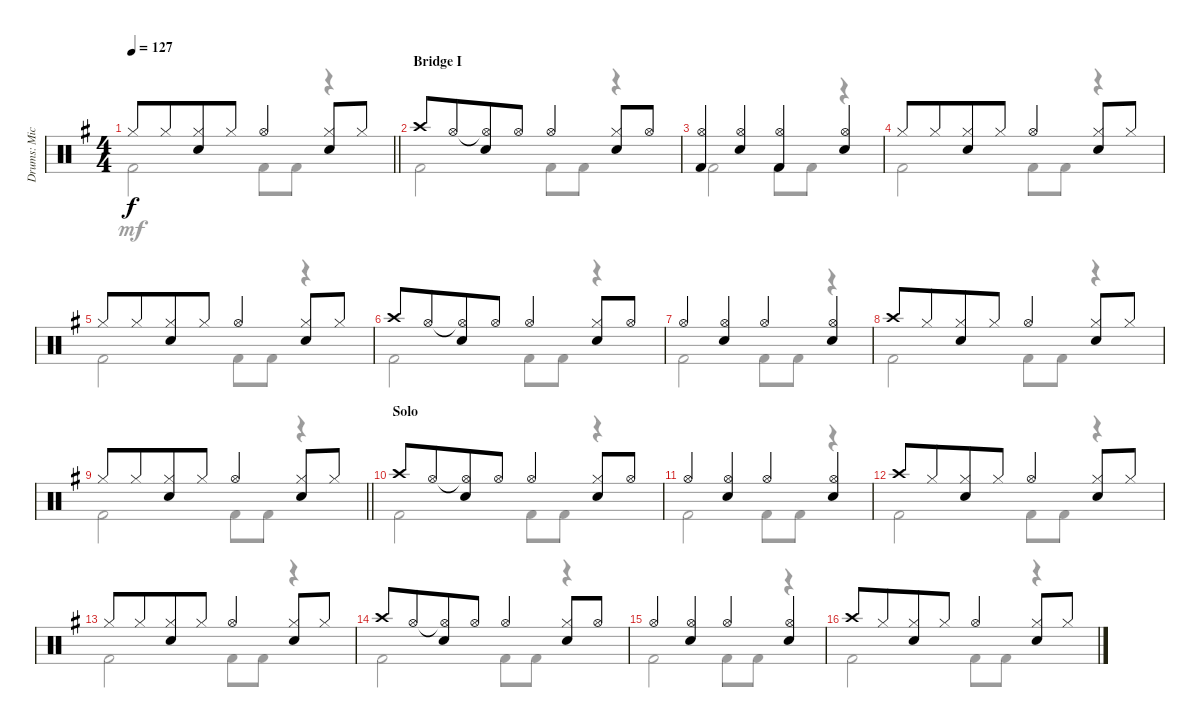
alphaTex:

\track ("Drums: Mick" "Drums: Mic") {instrument percussion}
\staff {score}
\articulation defaults
\voice
\ts (4 4)
\tempo 127
\clef neutral
\barLineRight lightlight
\ks g "Hi-Hat (closed)".8{dy f} "Hi-Hat (closed)".8{beam merge}
("Hi-Hat (closed)" "Snare (hit) 2").8 "Hi-Hat (closed)".8 "Hi-Hat (open)".4{beam merge} ("Hi-Hat (closed)" "Snare (hit) 2").8 "Hi-Hat (closed)".8 |
\section ("" "Bridge I")
"Crash high (hit)".8 "Hi-Hat (open)".8{beam merge} ("Hi-Hat (open)"{t} "Snare (hit) 2").8 "Hi-Hat (open)".8 "Hi-Hat (open)".4{beam merge} ("Hi-Hat (closed)" "Snare (hit) 2").8 "Hi-Hat (open)".8 |
("Hi-Hat (open)" "Kick (hit) 2").4{beam merge} ("Hi-Hat (open)" "Snare (hit) 2").4 ("Hi-Hat (open)" "Kick (hit) 2").4{beam merge} ("Hi-Hat (open)" "Snare (hit) 2").4 |
"Hi-Hat (closed)".8 "Hi-Hat (closed)".8{beam merge} ("Hi-Hat (closed)" "Snare (hit) 2").8 "Hi-Hat (closed)".8 "Hi-Hat (open)".4{beam merge} ("Hi-Hat (closed)" "Snare (hit) 2").8 "Hi-Hat (closed)".8 |
"Hi-Hat (closed)".8 "Hi-Hat (closed)".8{beam merge} ("Hi-Hat (closed)" "Snare (hit) 2").8 "Hi-Hat (closed)".8 "Hi-Hat (open)".4{beam merge} ("Hi-Hat (closed)" "Snare (hit) 2").8 "Hi-Hat (closed)".8 |
"Crash high (hit)".8 "Hi-Hat (open)".8{beam merge} ("Hi-Hat (open)"{t} "Snare (hit) 2").8 "Hi-Hat (open)".8 "Hi-Hat (open)".4{beam merge} ("Hi-Hat (closed)" "Snare (hit) 2").8 "Hi-Hat (open)".8 |
"Hi-Hat (open)".4{beam merge} ("Hi-Hat (open)" "Snare (hit) 2").4 "Hi-Hat (open)".4{beam merge} ("Hi-Hat (open)" "Snare (hit) 2").4 |
"Crash high (hit)".8 "Hi-Hat (closed)".8{beam merge} ("Hi-Hat (closed)" "Snare (hit) 2").8 "Hi-Hat (closed)".8 "Hi-Hat (open)".4{beam merge} ("Hi-Hat (closed)" "Snare (hit) 2").8 "Hi-Hat (closed)".8 |
\barLineRight lightlight "Hi-Hat (closed)".8 "Hi-Hat (closed)".8{beam merge}
("Hi-Hat (closed)" "Snare (hit) 2").8 "Hi-Hat (closed)".8 "Hi-Hat (open)".4{beam merge} ("Hi-Hat (closed)" "Snare (hit) 2").8 "Hi-Hat (closed)".8 |
\section ("" "Solo")
"Crash high (hit)".8 "Hi-Hat (open)".8{beam merge} ("Hi-Hat (open)"{t} "Snare (hit) 2").8 "Hi-Hat (open)".8 "Hi-Hat (open)".4{beam merge} ("Hi-Hat (closed)" "Snare (hit) 2").8 "Hi-Hat (open)".8 |
"Hi-Hat (open)".4{beam merge} ("Hi-Hat (open)" "Snare (hit) 2").4 "Hi-Hat (open)".4{beam merge} ("Hi-Hat (open)" "Snare (hit) 2").4 |
"Crash high (hit)".8 "Hi-Hat (closed)".8{beam merge} ("Hi-Hat (closed)" "Snare (hit) 2").8 "Hi-Hat (closed)".8 "Hi-Hat (open)".4{beam merge} ("Hi-Hat (closed)" "Snare (hit) 2").8 "Hi-Hat (closed)".8 |
"Hi-Hat (closed)".8 "Hi-Hat (closed)".8{beam merge} ("Hi-Hat (closed)" "Snare (hit) 2").8 "Hi-Hat (closed)".8 "Hi-Hat (open)".4{beam merge} ("Hi-Hat (closed)" "Snare (hit) 2").8 "Hi-Hat (closed)".8 |
"Crash high (hit)".8 "Hi-Hat (open)".8{beam merge} ("Hi-Hat (open)"{t} "Snare (hit) 2").8 "Hi-Hat (open)".8 "Hi-Hat (open)".4{beam merge} ("Hi-Hat (closed)" "Snare (hit) 2").8 "Hi-Hat (open)".8 |
"Hi-Hat (open)".4{beam merge} ("Hi-Hat (open)" "Snare (hit) 2").4 "Hi-Hat (open)".4{beam merge} ("Hi-Hat (open)" "Snare (hit) 2").4 |
"Crash high (hit)".8 "Hi-Hat (closed)".8{beam merge} ("Hi-Hat (closed)" "Snare (hit) 2").8 "Hi-Hat (closed)".8 "Hi-Hat (open)".4{beam merge} ("Hi-Hat (closed)" "Snare (hit) 2").8 "Hi-Hat (closed)".8
\voice
\clef neutral
\ottava regular
\simile none
\barLineRight lightlight
\ks g "Kick (hit) 2".2{dy mf} "Kick (hit) 2".8 "Kick (hit) 2".8
r.4 |
"Kick (hit) 2".2 "Kick (hit) 2".8 "Kick (hit) 2".8 r.4 |
"Kick (hit) 2".2 "Kick (hit) 2".8 "Kick (hit) 2".8 r.4 |
"Kick (hit) 2".2 "Kick (hit) 2".8 "Kick (hit) 2".8 r.4 |
"Kick (hit) 2".2 "Kick (hit) 2".8 "Kick (hit) 2".8 r.4 |
"Kick (hit) 2".2 "Kick (hit) 2".8 "Kick (hit) 2".8 r.4 |
"Kick (hit) 2".2 "Kick (hit) 2".8 "Kick (hit) 2".8 r.4 |
"Kick (hit) 2".2 "Kick (hit) 2".8 "Kick (hit) 2".8 r.4 |
\barLineRight lightlight "Kick (hit) 2".2 "Kick (hit) 2".8 "Kick (hit) 2".8
r.4 |
"Kick (hit) 2".2 "Kick (hit) 2".8 "Kick (hit) 2".8 r.4 |
"Kick (hit) 2".2 "Kick (hit) 2".8 "Kick (hit) 2".8 r.4 |
"Kick (hit) 2".2 "Kick (hit) 2".8 "Kick (hit) 2".8 r.4 |
"Kick (hit) 2".2 "Kick (hit) 2".8 "Kick (hit) 2".8 r.4 |
"Kick (hit) 2".2 "Kick (hit) 2".8 "Kick (hit) 2".8 r.4 |
"Kick (hit) 2".2 "Kick (hit) 2".8 "Kick (hit) 2".8 r.4 |
"Kick (hit) 2".2 "Kick (hit) 2".8 "Kick (hit) 2".8 r.4
